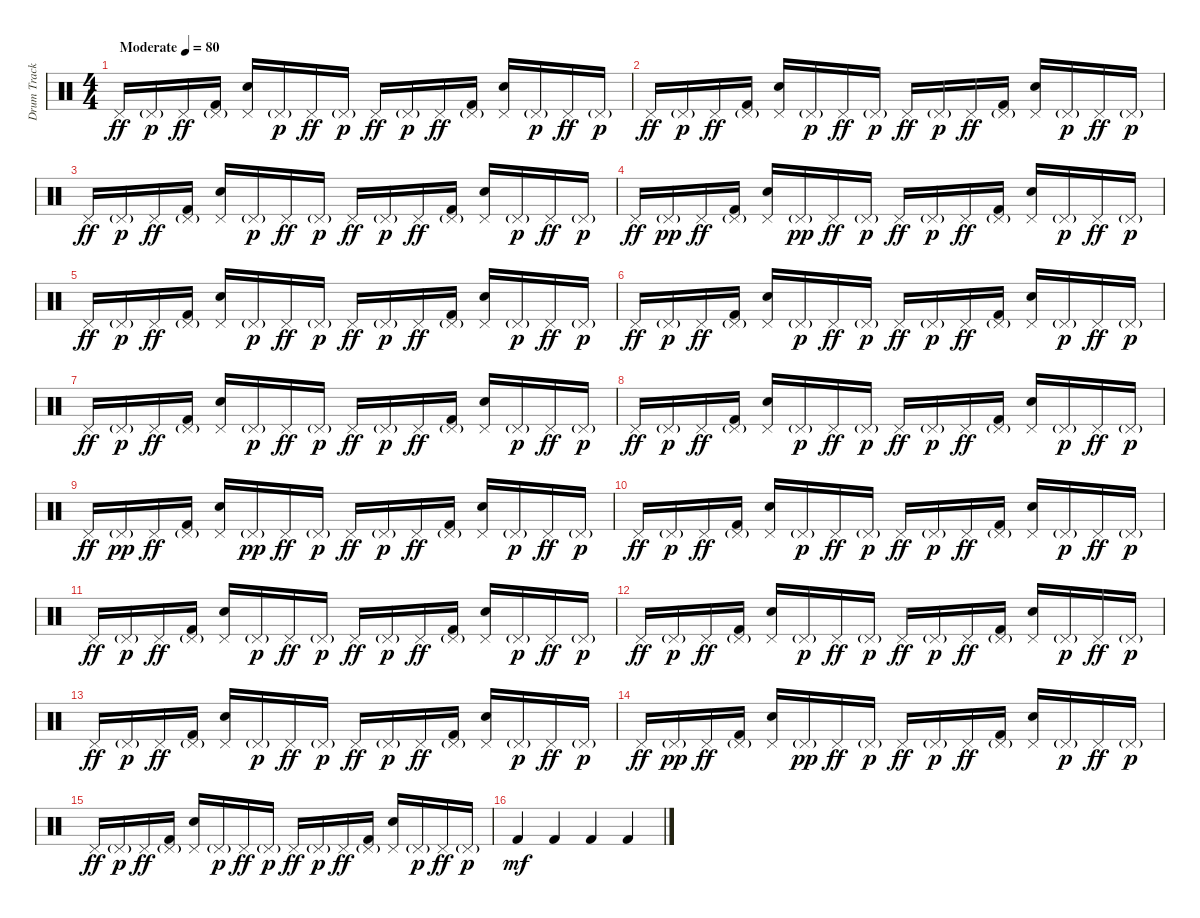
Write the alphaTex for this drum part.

\track ("Drum Track" "Drum Track") {instrument percussion}
\staff {score}
\articulation defaults
\ts (4 4)
\tempo (80 "Moderate")
\clef neutral
\ks c "Pedal Hi-Hat (hit)".16{dy ff} "Pedal Hi-Hat (hit)"{g}.16{dy p} "Pedal Hi-Hat (hit)".16{dy ff}
("Pedal Hi-Hat (hit)"{g} "Kick (hit) 2").16 ("Pedal Hi-Hat (hit)" "Electric Snare (hit)").16 "Pedal Hi-Hat (hit)"{g}.16{dy p} "Pedal Hi-Hat (hit)".16{dy ff} "Pedal Hi-Hat (hit)"{g}.16{dy p} "Pedal Hi-Hat (hit)".16{dy ff} "Pedal Hi-Hat (hit)"{g}.16{dy p} "Pedal Hi-Hat (hit)".16{dy ff} ("Pedal Hi-Hat (hit)"{g} "Kick (hit) 2").16 ("Pedal Hi-Hat (hit)" "Electric Snare (hit)").16 "Pedal Hi-Hat (hit)"{g}.16{dy p} "Pedal Hi-Hat (hit)".16{dy ff} "Pedal Hi-Hat (hit)"{g}.16{dy p} |
"Pedal Hi-Hat (hit)".16{dy ff} "Pedal Hi-Hat (hit)"{g}.16{dy p} "Pedal Hi-Hat (hit)".16{dy ff} ("Pedal Hi-Hat (hit)"{g} "Kick (hit) 2").16 ("Pedal Hi-Hat (hit)" "Electric Snare (hit)").16 "Pedal Hi-Hat (hit)"{g}.16{dy p} "Pedal Hi-Hat (hit)".16{dy ff} "Pedal Hi-Hat (hit)"{g}.16{dy p} "Pedal Hi-Hat (hit)".16{dy ff} "Pedal Hi-Hat (hit)"{g}.16{dy p} "Pedal Hi-Hat (hit)".16{dy ff} ("Pedal Hi-Hat (hit)"{g} "Kick (hit) 2").16 ("Pedal Hi-Hat (hit)" "Electric Snare (hit)").16 "Pedal Hi-Hat (hit)"{g}.16{dy p} "Pedal Hi-Hat (hit)".16{dy ff} "Pedal Hi-Hat (hit)"{g}.16{dy p} |
"Pedal Hi-Hat (hit)".16{dy ff} "Pedal Hi-Hat (hit)"{g}.16{dy p} "Pedal Hi-Hat (hit)".16{dy ff} ("Pedal Hi-Hat (hit)"{g} "Kick (hit) 2").16 ("Pedal Hi-Hat (hit)" "Electric Snare (hit)").16 "Pedal Hi-Hat (hit)"{g}.16{dy p} "Pedal Hi-Hat (hit)".16{dy ff} "Pedal Hi-Hat (hit)"{g}.16{dy p} "Pedal Hi-Hat (hit)".16{dy ff} "Pedal Hi-Hat (hit)"{g}.16{dy p} "Pedal Hi-Hat (hit)".16{dy ff} ("Pedal Hi-Hat (hit)"{g} "Kick (hit) 2").16 ("Pedal Hi-Hat (hit)" "Electric Snare (hit)").16 "Pedal Hi-Hat (hit)"{g}.16{dy p} "Pedal Hi-Hat (hit)".16{dy ff} "Pedal Hi-Hat (hit)"{g}.16{dy p} |
"Pedal Hi-Hat (hit)".16{dy ff} "Pedal Hi-Hat (hit)"{g}.16{dy pp} "Pedal Hi-Hat (hit)".16{dy ff} ("Pedal Hi-Hat (hit)"{g} "Kick (hit) 2").16 ("Pedal Hi-Hat (hit)" "Electric Snare (hit)").16 "Pedal Hi-Hat (hit)"{g}.16{dy pp} "Pedal Hi-Hat (hit)".16{dy ff} "Pedal Hi-Hat (hit)"{g}.16{dy p} "Pedal Hi-Hat (hit)".16{dy ff} "Pedal Hi-Hat (hit)"{g}.16{dy p} "Pedal Hi-Hat (hit)".16{dy ff} ("Pedal Hi-Hat (hit)"{g} "Kick (hit) 2").16 ("Pedal Hi-Hat (hit)" "Electric Snare (hit)").16 "Pedal Hi-Hat (hit)"{g}.16{dy p} "Pedal Hi-Hat (hit)".16{dy ff} "Pedal Hi-Hat (hit)"{g}.16{dy p} |
"Pedal Hi-Hat (hit)".16{dy ff} "Pedal Hi-Hat (hit)"{g}.16{dy p} "Pedal Hi-Hat (hit)".16{dy ff} ("Pedal Hi-Hat (hit)"{g} "Kick (hit) 2").16 ("Pedal Hi-Hat (hit)" "Electric Snare (hit)").16 "Pedal Hi-Hat (hit)"{g}.16{dy p} "Pedal Hi-Hat (hit)".16{dy ff} "Pedal Hi-Hat (hit)"{g}.16{dy p} "Pedal Hi-Hat (hit)".16{dy ff} "Pedal Hi-Hat (hit)"{g}.16{dy p} "Pedal Hi-Hat (hit)".16{dy ff} ("Pedal Hi-Hat (hit)"{g} "Kick (hit) 2").16 ("Pedal Hi-Hat (hit)" "Electric Snare (hit)").16 "Pedal Hi-Hat (hit)"{g}.16{dy p} "Pedal Hi-Hat (hit)".16{dy ff} "Pedal Hi-Hat (hit)"{g}.16{dy p} |
"Pedal Hi-Hat (hit)".16{dy ff} "Pedal Hi-Hat (hit)"{g}.16{dy p} "Pedal Hi-Hat (hit)".16{dy ff} ("Pedal Hi-Hat (hit)"{g} "Kick (hit) 2").16 ("Pedal Hi-Hat (hit)" "Electric Snare (hit)").16 "Pedal Hi-Hat (hit)"{g}.16{dy p} "Pedal Hi-Hat (hit)".16{dy ff} "Pedal Hi-Hat (hit)"{g}.16{dy p} "Pedal Hi-Hat (hit)".16{dy ff} "Pedal Hi-Hat (hit)"{g}.16{dy p} "Pedal Hi-Hat (hit)".16{dy ff} ("Pedal Hi-Hat (hit)"{g} "Kick (hit) 2").16 ("Pedal Hi-Hat (hit)" "Electric Snare (hit)").16 "Pedal Hi-Hat (hit)"{g}.16{dy p} "Pedal Hi-Hat (hit)".16{dy ff} "Pedal Hi-Hat (hit)"{g}.16{dy p} |
"Pedal Hi-Hat (hit)".16{dy ff} "Pedal Hi-Hat (hit)"{g}.16{dy p} "Pedal Hi-Hat (hit)".16{dy ff} ("Pedal Hi-Hat (hit)"{g} "Kick (hit) 2").16 ("Pedal Hi-Hat (hit)" "Electric Snare (hit)").16 "Pedal Hi-Hat (hit)"{g}.16{dy p} "Pedal Hi-Hat (hit)".16{dy ff} "Pedal Hi-Hat (hit)"{g}.16{dy p} "Pedal Hi-Hat (hit)".16{dy ff} "Pedal Hi-Hat (hit)"{g}.16{dy p} "Pedal Hi-Hat (hit)".16{dy ff} ("Pedal Hi-Hat (hit)"{g} "Kick (hit) 2").16 ("Pedal Hi-Hat (hit)" "Electric Snare (hit)").16 "Pedal Hi-Hat (hit)"{g}.16{dy p} "Pedal Hi-Hat (hit)".16{dy ff} "Pedal Hi-Hat (hit)"{g}.16{dy p} |
"Pedal Hi-Hat (hit)".16{dy ff} "Pedal Hi-Hat (hit)"{g}.16{dy p} "Pedal Hi-Hat (hit)".16{dy ff} ("Pedal Hi-Hat (hit)"{g} "Kick (hit) 2").16 ("Pedal Hi-Hat (hit)" "Electric Snare (hit)").16 "Pedal Hi-Hat (hit)"{g}.16{dy p} "Pedal Hi-Hat (hit)".16{dy ff} "Pedal Hi-Hat (hit)"{g}.16{dy p} "Pedal Hi-Hat (hit)".16{dy ff} "Pedal Hi-Hat (hit)"{g}.16{dy p} "Pedal Hi-Hat (hit)".16{dy ff} ("Pedal Hi-Hat (hit)"{g} "Kick (hit) 2").16 ("Pedal Hi-Hat (hit)" "Electric Snare (hit)").16 "Pedal Hi-Hat (hit)"{g}.16{dy p} "Pedal Hi-Hat (hit)".16{dy ff} "Pedal Hi-Hat (hit)"{g}.16{dy p} |
"Pedal Hi-Hat (hit)".16{dy ff} "Pedal Hi-Hat (hit)"{g}.16{dy pp} "Pedal Hi-Hat (hit)".16{dy ff} ("Pedal Hi-Hat (hit)"{g} "Kick (hit) 2").16 ("Pedal Hi-Hat (hit)" "Electric Snare (hit)").16 "Pedal Hi-Hat (hit)"{g}.16{dy pp} "Pedal Hi-Hat (hit)".16{dy ff} "Pedal Hi-Hat (hit)"{g}.16{dy p} "Pedal Hi-Hat (hit)".16{dy ff} "Pedal Hi-Hat (hit)"{g}.16{dy p} "Pedal Hi-Hat (hit)".16{dy ff} ("Pedal Hi-Hat (hit)"{g} "Kick (hit) 2").16 ("Pedal Hi-Hat (hit)" "Electric Snare (hit)").16 "Pedal Hi-Hat (hit)"{g}.16{dy p} "Pedal Hi-Hat (hit)".16{dy ff} "Pedal Hi-Hat (hit)"{g}.16{dy p} |
"Pedal Hi-Hat (hit)".16{dy ff} "Pedal Hi-Hat (hit)"{g}.16{dy p} "Pedal Hi-Hat (hit)".16{dy ff} ("Pedal Hi-Hat (hit)"{g} "Kick (hit) 2").16 ("Pedal Hi-Hat (hit)" "Electric Snare (hit)").16 "Pedal Hi-Hat (hit)"{g}.16{dy p} "Pedal Hi-Hat (hit)".16{dy ff} "Pedal Hi-Hat (hit)"{g}.16{dy p} "Pedal Hi-Hat (hit)".16{dy ff} "Pedal Hi-Hat (hit)"{g}.16{dy p} "Pedal Hi-Hat (hit)".16{dy ff} ("Pedal Hi-Hat (hit)"{g} "Kick (hit) 2").16 ("Pedal Hi-Hat (hit)" "Electric Snare (hit)").16 "Pedal Hi-Hat (hit)"{g}.16{dy p} "Pedal Hi-Hat (hit)".16{dy ff} "Pedal Hi-Hat (hit)"{g}.16{dy p} |
"Pedal Hi-Hat (hit)".16{dy ff} "Pedal Hi-Hat (hit)"{g}.16{dy p} "Pedal Hi-Hat (hit)".16{dy ff} ("Pedal Hi-Hat (hit)"{g} "Kick (hit) 2").16 ("Pedal Hi-Hat (hit)" "Electric Snare (hit)").16 "Pedal Hi-Hat (hit)"{g}.16{dy p} "Pedal Hi-Hat (hit)".16{dy ff} "Pedal Hi-Hat (hit)"{g}.16{dy p} "Pedal Hi-Hat (hit)".16{dy ff} "Pedal Hi-Hat (hit)"{g}.16{dy p} "Pedal Hi-Hat (hit)".16{dy ff} ("Pedal Hi-Hat (hit)"{g} "Kick (hit) 2").16 ("Pedal Hi-Hat (hit)" "Electric Snare (hit)").16 "Pedal Hi-Hat (hit)"{g}.16{dy p} "Pedal Hi-Hat (hit)".16{dy ff} "Pedal Hi-Hat (hit)"{g}.16{dy p} |
"Pedal Hi-Hat (hit)".16{dy ff} "Pedal Hi-Hat (hit)"{g}.16{dy p} "Pedal Hi-Hat (hit)".16{dy ff} ("Pedal Hi-Hat (hit)"{g} "Kick (hit) 2").16 ("Pedal Hi-Hat (hit)" "Electric Snare (hit)").16 "Pedal Hi-Hat (hit)"{g}.16{dy p} "Pedal Hi-Hat (hit)".16{dy ff} "Pedal Hi-Hat (hit)"{g}.16{dy p} "Pedal Hi-Hat (hit)".16{dy ff} "Pedal Hi-Hat (hit)"{g}.16{dy p} "Pedal Hi-Hat (hit)".16{dy ff} ("Pedal Hi-Hat (hit)"{g} "Kick (hit) 2").16 ("Pedal Hi-Hat (hit)" "Electric Snare (hit)").16 "Pedal Hi-Hat (hit)"{g}.16{dy p} "Pedal Hi-Hat (hit)".16{dy ff} "Pedal Hi-Hat (hit)"{g}.16{dy p} |
"Pedal Hi-Hat (hit)".16{dy ff} "Pedal Hi-Hat (hit)"{g}.16{dy p} "Pedal Hi-Hat (hit)".16{dy ff} ("Pedal Hi-Hat (hit)"{g} "Kick (hit) 2").16 ("Pedal Hi-Hat (hit)" "Electric Snare (hit)").16 "Pedal Hi-Hat (hit)"{g}.16{dy p} "Pedal Hi-Hat (hit)".16{dy ff} "Pedal Hi-Hat (hit)"{g}.16{dy p} "Pedal Hi-Hat (hit)".16{dy ff} "Pedal Hi-Hat (hit)"{g}.16{dy p} "Pedal Hi-Hat (hit)".16{dy ff} ("Pedal Hi-Hat (hit)"{g} "Kick (hit) 2").16 ("Pedal Hi-Hat (hit)" "Electric Snare (hit)").16 "Pedal Hi-Hat (hit)"{g}.16{dy p} "Pedal Hi-Hat (hit)".16{dy ff} "Pedal Hi-Hat (hit)"{g}.16{dy p} |
"Pedal Hi-Hat (hit)".16{dy ff} "Pedal Hi-Hat (hit)"{g}.16{dy pp} "Pedal Hi-Hat (hit)".16{dy ff} ("Pedal Hi-Hat (hit)"{g} "Kick (hit) 2").16 ("Pedal Hi-Hat (hit)" "Electric Snare (hit)").16 "Pedal Hi-Hat (hit)"{g}.16{dy pp} "Pedal Hi-Hat (hit)".16{dy ff} "Pedal Hi-Hat (hit)"{g}.16{dy p} "Pedal Hi-Hat (hit)".16{dy ff} "Pedal Hi-Hat (hit)"{g}.16{dy p} "Pedal Hi-Hat (hit)".16{dy ff} ("Pedal Hi-Hat (hit)"{g} "Kick (hit) 2").16 ("Pedal Hi-Hat (hit)" "Electric Snare (hit)").16 "Pedal Hi-Hat (hit)"{g}.16{dy p} "Pedal Hi-Hat (hit)".16{dy ff} "Pedal Hi-Hat (hit)"{g}.16{dy p} |
"Pedal Hi-Hat (hit)".16{dy ff} "Pedal Hi-Hat (hit)"{g}.16{dy p} "Pedal Hi-Hat (hit)".16{dy ff} ("Pedal Hi-Hat (hit)"{g} "Kick (hit) 2").16 ("Pedal Hi-Hat (hit)" "Electric Snare (hit)").16 "Pedal Hi-Hat (hit)"{g}.16{dy p} "Pedal Hi-Hat (hit)".16{dy ff} "Pedal Hi-Hat (hit)"{g}.16{dy p} "Pedal Hi-Hat (hit)".16{dy ff} "Pedal Hi-Hat (hit)"{g}.16{dy p} "Pedal Hi-Hat (hit)".16{dy ff} ("Pedal Hi-Hat (hit)"{g} "Kick (hit) 2").16 ("Pedal Hi-Hat (hit)" "Electric Snare (hit)").16 "Pedal Hi-Hat (hit)"{g}.16{dy p} "Pedal Hi-Hat (hit)".16{dy ff} "Pedal Hi-Hat (hit)"{g}.16{dy p} |
"Kick (hit) 2".4{dy mf} "Kick (hit) 2".4 "Kick (hit) 2".4 "Kick (hit) 2".4
